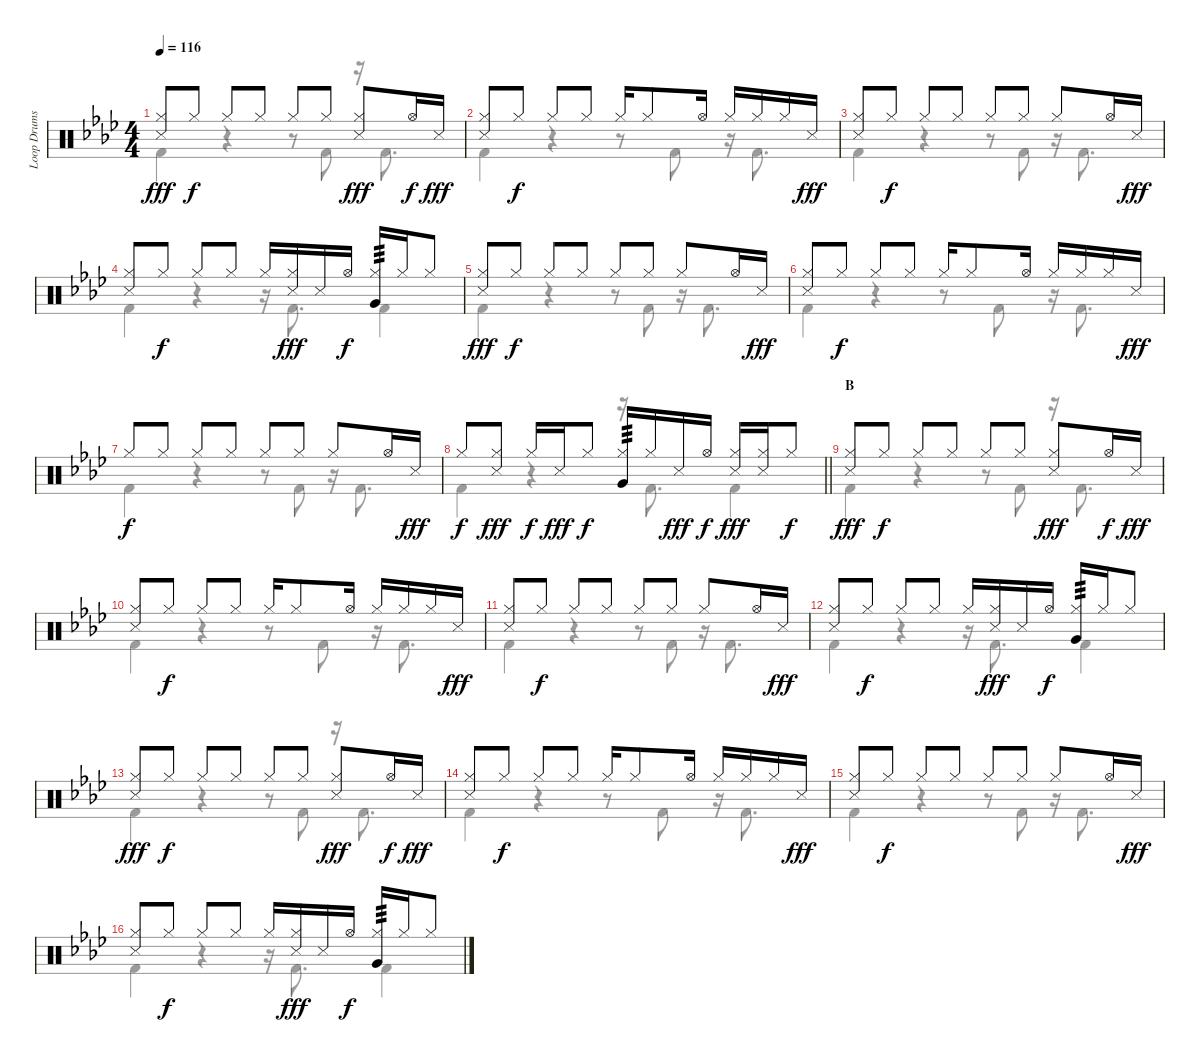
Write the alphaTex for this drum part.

\track ("Loop Drums I" "Loop Drums") {instrument percussion}
\staff {score}
\articulation defaults
\voice
\ts (4 4)
\tempo 116
\clef neutral
\ks ab
("Hi-Hat (closed)" "Snare (side stick) 3").8{dy fff} "Hi-Hat (closed)".8{dy f} "Hi-Hat (closed)".8 "Hi-Hat (closed)".8 "Hi-Hat (closed)".8 "Hi-Hat (closed)".8 ("Hi-Hat (closed)" "Snare (side stick) 3").8{dy fff} "Hi-Hat (open)".16{dy f} "Snare (side stick) 3".16{dy fff} |
("Hi-Hat (closed)" "Snare (side stick) 3").8 "Hi-Hat (closed)".8{dy f} "Hi-Hat (closed)".8 "Hi-Hat (closed)".8 "Hi-Hat (closed)".16 "Hi-Hat (closed)".8 "Hi-Hat (open)".16 "Hi-Hat (closed)".16 "Hi-Hat (closed)".16 "Hi-Hat (closed)".16 "Snare (side stick) 3".16{dy fff} |
("Hi-Hat (closed)" "Snare (side stick) 3").8 "Hi-Hat (closed)".8{dy f} "Hi-Hat (closed)".8 "Hi-Hat (closed)".8 "Hi-Hat (closed)".8 "Hi-Hat (closed)".8 "Hi-Hat (closed)".8 "Hi-Hat (open)".16 "Snare (side stick) 3".16{dy fff} |
("Hi-Hat (closed)" "Snare (side stick) 3").8 "Hi-Hat (closed)".8{dy f} "Hi-Hat (closed)".8 "Hi-Hat (closed)".8 "Hi-Hat (closed)".16 ("Hi-Hat (closed)" "Snare (side stick) 3").16{dy fff} "Snare (side stick) 3".16 "Hi-Hat (open)".16{dy f} ("Hi-Hat (closed)" "Very Low Tom (hit)").16{tp 3} "Hi-Hat (closed)".16 "Hi-Hat (closed)".8 |
("Hi-Hat (closed)" "Snare (side stick) 3").8{dy fff} "Hi-Hat (closed)".8{dy f} "Hi-Hat (closed)".8 "Hi-Hat (closed)".8 "Hi-Hat (closed)".8 "Hi-Hat (closed)".8 "Hi-Hat (closed)".8 "Hi-Hat (open)".16 "Snare (side stick) 3".16{dy fff} |
("Hi-Hat (closed)" "Snare (side stick) 3").8 "Hi-Hat (closed)".8{dy f} "Hi-Hat (closed)".8 "Hi-Hat (closed)".8 "Hi-Hat (closed)".16 "Hi-Hat (closed)".8 "Hi-Hat (open)".16 "Hi-Hat (closed)".16 "Hi-Hat (closed)".16 "Hi-Hat (closed)".16 "Snare (side stick) 3".16{dy fff} |
"Hi-Hat (closed)".8{dy f} "Hi-Hat (closed)".8 "Hi-Hat (closed)".8 "Hi-Hat (closed)".8 "Hi-Hat (closed)".8 "Hi-Hat (closed)".8 "Hi-Hat (closed)".8 "Hi-Hat (open)".16 "Snare (side stick) 3".16{dy fff} |
\barLineRight lightlight "Hi-Hat (closed)".8{dy f}
("Hi-Hat (closed)" "Snare (side stick) 3").8{dy fff} "Hi-Hat (closed)".16{dy f} "Snare (side stick) 3".16{dy fff} "Hi-Hat (closed)".8{dy f} ("Hi-Hat (closed)" "Very Low Tom (hit)").16{tp 3} "Hi-Hat (closed)".16 "Snare (side stick) 3".16{dy fff} "Hi-Hat (open)".16{dy f} ("Hi-Hat (closed)" "Snare (side stick) 3").16{dy fff} ("Hi-Hat (closed)" "Snare (side stick) 3").16 "Hi-Hat (closed)".8{dy f} |
\section ("" "B")
("Hi-Hat (closed)" "Snare (side stick) 3").8{dy fff} "Hi-Hat (closed)".8{dy f} "Hi-Hat (closed)".8 "Hi-Hat (closed)".8 "Hi-Hat (closed)".8 "Hi-Hat (closed)".8 ("Hi-Hat (closed)" "Snare (side stick) 3").8{dy fff} "Hi-Hat (open)".16{dy f} "Snare (side stick) 3".16{dy fff} |
("Hi-Hat (closed)" "Snare (side stick) 3").8 "Hi-Hat (closed)".8{dy f} "Hi-Hat (closed)".8 "Hi-Hat (closed)".8 "Hi-Hat (closed)".16 "Hi-Hat (closed)".8 "Hi-Hat (open)".16 "Hi-Hat (closed)".16 "Hi-Hat (closed)".16 "Hi-Hat (closed)".16 "Snare (side stick) 3".16{dy fff} |
("Hi-Hat (closed)" "Snare (side stick) 3").8 "Hi-Hat (closed)".8{dy f} "Hi-Hat (closed)".8 "Hi-Hat (closed)".8 "Hi-Hat (closed)".8 "Hi-Hat (closed)".8 "Hi-Hat (closed)".8 "Hi-Hat (open)".16 "Snare (side stick) 3".16{dy fff} |
("Hi-Hat (closed)" "Snare (side stick) 3").8 "Hi-Hat (closed)".8{dy f} "Hi-Hat (closed)".8 "Hi-Hat (closed)".8 "Hi-Hat (closed)".16 ("Hi-Hat (closed)" "Snare (side stick) 3").16{dy fff} "Snare (side stick) 3".16 "Hi-Hat (open)".16{dy f} ("Hi-Hat (closed)" "Very Low Tom (hit)").16{tp 3} "Hi-Hat (closed)".16 "Hi-Hat (closed)".8 |
("Hi-Hat (closed)" "Snare (side stick) 3").8{dy fff} "Hi-Hat (closed)".8{dy f} "Hi-Hat (closed)".8 "Hi-Hat (closed)".8 "Hi-Hat (closed)".8 "Hi-Hat (closed)".8 ("Hi-Hat (closed)" "Snare (side stick) 3").8{dy fff} "Hi-Hat (open)".16{dy f} "Snare (side stick) 3".16{dy fff} |
("Hi-Hat (closed)" "Snare (side stick) 3").8 "Hi-Hat (closed)".8{dy f} "Hi-Hat (closed)".8 "Hi-Hat (closed)".8 "Hi-Hat (closed)".16 "Hi-Hat (closed)".8 "Hi-Hat (open)".16 "Hi-Hat (closed)".16 "Hi-Hat (closed)".16 "Hi-Hat (closed)".16 "Snare (side stick) 3".16{dy fff} |
("Hi-Hat (closed)" "Snare (side stick) 3").8 "Hi-Hat (closed)".8{dy f} "Hi-Hat (closed)".8 "Hi-Hat (closed)".8 "Hi-Hat (closed)".8 "Hi-Hat (closed)".8 "Hi-Hat (closed)".8 "Hi-Hat (open)".16 "Snare (side stick) 3".16{dy fff} |
("Hi-Hat (closed)" "Snare (side stick) 3").8 "Hi-Hat (closed)".8{dy f} "Hi-Hat (closed)".8 "Hi-Hat (closed)".8 "Hi-Hat (closed)".16 ("Hi-Hat (closed)" "Snare (side stick) 3").16{dy fff} "Snare (side stick) 3".16 "Hi-Hat (open)".16{dy f} ("Hi-Hat (closed)" "Very Low Tom (hit)").16{tp 3} "Hi-Hat (closed)".16 "Hi-Hat (closed)".8
\voice
\clef neutral
\ottava regular
\simile none
\ks ab "Kick (hit) 2".4{dy fff}
r.4 r.8 "Kick (hit) 2".8 r.16 "Kick (hit) 2".8{d} |
"Kick (hit) 2".4 r.4 r.8 "Kick (hit) 2".8 r.16 "Kick (hit) 2".8{d} |
"Kick (hit) 2".4 r.4 r.8 "Kick (hit) 2".8 r.16 "Kick (hit) 2".8{d} |
"Kick (hit) 2".4 r.4 r.16 "Kick (hit) 2".8{d} "Kick (hit) 2".4 |
"Kick (hit) 2".4 r.4 r.8 "Kick (hit) 2".8 r.16 "Kick (hit) 2".8{d} |
"Kick (hit) 2".4 r.4 r.8 "Kick (hit) 2".8 r.16 "Kick (hit) 2".8{d} |
"Kick (hit) 2".4 r.4 r.8 "Kick (hit) 2".8 r.16 "Kick (hit) 2".8{d} |
\barLineRight lightlight "Kick (hit) 2".4
r.4 r.16 "Kick (hit) 2".8{d} "Kick (hit) 2".4 |
"Kick (hit) 2".4 r.4 r.8 "Kick (hit) 2".8 r.16 "Kick (hit) 2".8{d} |
"Kick (hit) 2".4 r.4 r.8 "Kick (hit) 2".8 r.16 "Kick (hit) 2".8{d} |
"Kick (hit) 2".4 r.4 r.8 "Kick (hit) 2".8 r.16 "Kick (hit) 2".8{d} |
"Kick (hit) 2".4 r.4 r.16 "Kick (hit) 2".8{d} "Kick (hit) 2".4 |
"Kick (hit) 2".4 r.4 r.8 "Kick (hit) 2".8 r.16 "Kick (hit) 2".8{d} |
"Kick (hit) 2".4 r.4 r.8 "Kick (hit) 2".8 r.16 "Kick (hit) 2".8{d} |
"Kick (hit) 2".4 r.4 r.8 "Kick (hit) 2".8 r.16 "Kick (hit) 2".8{d} |
"Kick (hit) 2".4 r.4 r.16 "Kick (hit) 2".8{d} "Kick (hit) 2".4
